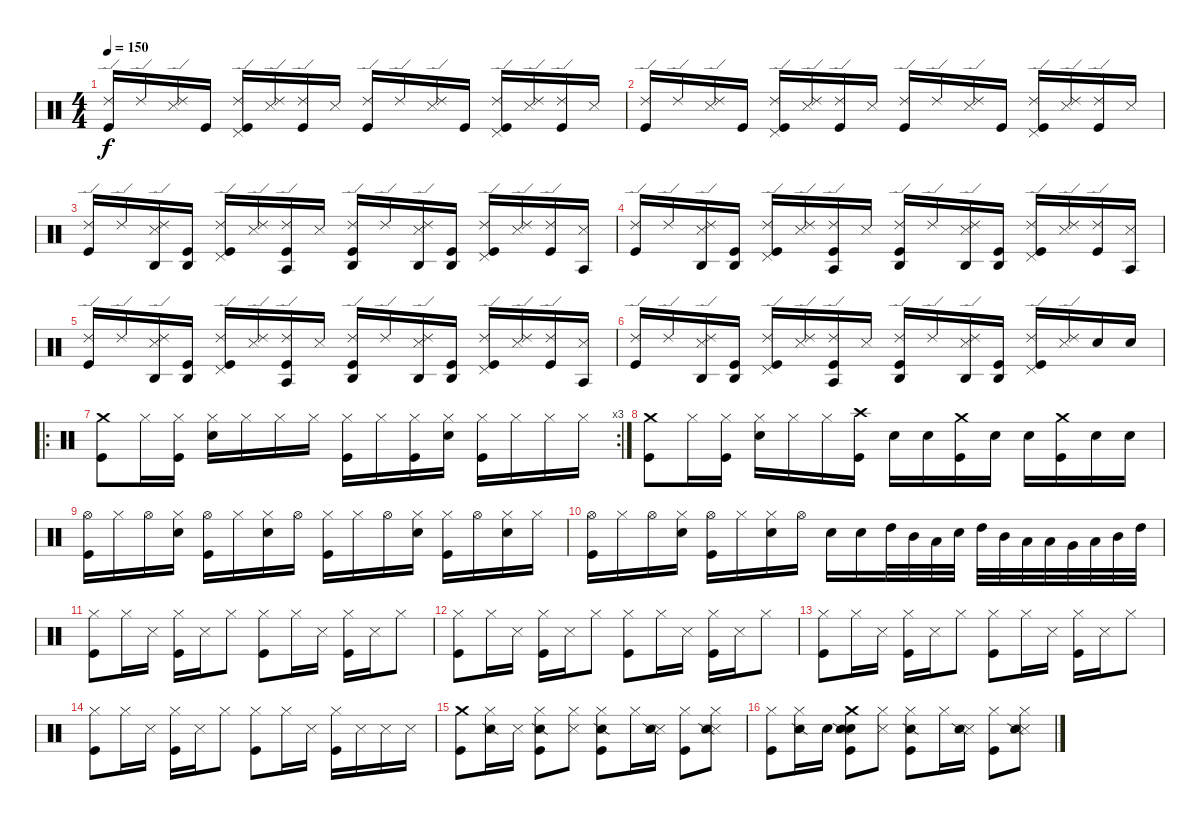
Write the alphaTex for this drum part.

\track "" {instrument percussion}
\staff {score}
\articulation defaults
\ts (4 4)
\tempo 150
\clef neutral
\ks c
("Ride (edge) 2" "Kick (hit)").16{dy f} "Ride (edge) 2".16 ("Ride (edge) 2" "Snare (side stick) 3").16 "Kick (hit)".16 ("Ride (edge) 2" "Pedal Hi-Hat (hit)" "Kick (hit)").16 ("Ride (edge) 2" "Snare (side stick) 3").16 ("Ride (edge) 2" "Kick (hit)").16 "Snare (side stick) 3".16 ("Ride (edge) 2" "Kick (hit)").16 "Ride (edge) 2".16 ("Ride (edge) 2" "Snare (side stick) 3").16 "Kick (hit)".16 ("Ride (edge) 2" "Pedal Hi-Hat (hit)" "Kick (hit)").16 ("Ride (edge) 2" "Snare (side stick) 3").16 ("Ride (edge) 2" "Kick (hit)").16 "Snare (side stick) 3".16 |
("Ride (edge) 2" "Kick (hit)").16 "Ride (edge) 2".16 ("Ride (edge) 2" "Snare (side stick) 3").16 "Kick (hit)".16 ("Ride (edge) 2" "Pedal Hi-Hat (hit)" "Kick (hit)").16 ("Ride (edge) 2" "Snare (side stick) 3").16 ("Ride (edge) 2" "Kick (hit)").16 "Snare (side stick) 3".16 ("Ride (edge) 2" "Kick (hit)").16 "Ride (edge) 2".16 ("Ride (edge) 2" "Snare (side stick) 3").16 "Kick (hit)".16 ("Ride (edge) 2" "Pedal Hi-Hat (hit)" "Kick (hit)").16 ("Ride (edge) 2" "Snare (side stick) 3").16 ("Ride (edge) 2" "Kick (hit)").16 "Snare (side stick) 3".16 |
("Ride (edge) 2" "Kick (hit)").16 "Ride (edge) 2".16 ("Ride (edge) 2" "Snare (side stick) 3" "Agogo high (hit)").16 ("Agogo high (hit)" "Kick (hit)").16 ("Ride (edge) 2" "Pedal Hi-Hat (hit)" "Kick (hit)").16 ("Ride (edge) 2" "Snare (side stick) 3").16 ("Ride (edge) 2" "Agogo tow (hit)" "Kick (hit)").16 "Snare (side stick) 3".16 ("Ride (edge) 2" "Agogo high (hit)" "Kick (hit)").16 "Ride (edge) 2".16 ("Ride (edge) 2" "Snare (side stick) 3" "Agogo high (hit)").16 ("Agogo high (hit)" "Kick (hit)").16 ("Ride (edge) 2" "Pedal Hi-Hat (hit)" "Kick (hit)").16 ("Ride (edge) 2" "Snare (side stick) 3").16 ("Ride (edge) 2" "Kick (hit)").16 ("Snare (side stick) 3" "Agogo tow (hit)").16 |
("Ride (edge) 2" "Kick (hit)").16 "Ride (edge) 2".16 ("Ride (edge) 2" "Snare (side stick) 3" "Agogo high (hit)").16 ("Agogo high (hit)" "Kick (hit)").16 ("Ride (edge) 2" "Pedal Hi-Hat (hit)" "Kick (hit)").16 ("Ride (edge) 2" "Snare (side stick) 3").16 ("Ride (edge) 2" "Agogo tow (hit)" "Kick (hit)").16 "Snare (side stick) 3".16 ("Ride (edge) 2" "Agogo high (hit)" "Kick (hit)").16 "Ride (edge) 2".16 ("Ride (edge) 2" "Snare (side stick) 3" "Agogo high (hit)").16 ("Agogo high (hit)" "Kick (hit)").16 ("Ride (edge) 2" "Pedal Hi-Hat (hit)" "Kick (hit)").16 ("Ride (edge) 2" "Snare (side stick) 3").16 ("Ride (edge) 2" "Kick (hit)").16 ("Snare (side stick) 3" "Agogo tow (hit)").16 |
("Ride (edge) 2" "Kick (hit)").16 "Ride (edge) 2".16 ("Ride (edge) 2" "Snare (side stick) 3" "Agogo high (hit)").16 ("Agogo high (hit)" "Kick (hit)").16 ("Ride (edge) 2" "Pedal Hi-Hat (hit)" "Kick (hit)").16 ("Ride (edge) 2" "Snare (side stick) 3").16 ("Ride (edge) 2" "Agogo tow (hit)" "Kick (hit)").16 "Snare (side stick) 3".16 ("Ride (edge) 2" "Agogo high (hit)" "Kick (hit)").16 "Ride (edge) 2".16 ("Ride (edge) 2" "Snare (side stick) 3" "Agogo high (hit)").16 ("Agogo high (hit)" "Kick (hit)").16 ("Ride (edge) 2" "Pedal Hi-Hat (hit)" "Kick (hit)").16 ("Ride (edge) 2" "Snare (side stick) 3").16 ("Ride (edge) 2" "Kick (hit)").16 ("Snare (side stick) 3" "Agogo tow (hit)").16 |
("Ride (edge) 2" "Kick (hit)").16 "Ride (edge) 2".16 ("Ride (edge) 2" "Snare (side stick) 3" "Agogo high (hit)").16 ("Agogo high (hit)" "Kick (hit)").16 ("Ride (edge) 2" "Pedal Hi-Hat (hit)" "Kick (hit)").16 ("Ride (edge) 2" "Snare (side stick) 3").16 ("Ride (edge) 2" "Agogo tow (hit)" "Kick (hit)").16 "Snare (side stick) 3".16 ("Ride (edge) 2" "Agogo high (hit)" "Kick (hit)").16 "Ride (edge) 2".16 ("Ride (edge) 2" "Snare (side stick) 3" "Agogo high (hit)").16 ("Agogo high (hit)" "Kick (hit)").16 ("Ride (edge) 2" "Pedal Hi-Hat (hit)" "Kick (hit)").16 ("Ride (edge) 2" "Snare (side stick) 3").16 "Electric Snare (hit)".16 "Electric Snare (hit)".16 |
\ro
\rc 3
("Crash medium (hit)" "Kick (hit)").8 "Hi-Hat (closed)".16 ("Hi-Hat (closed)" "Kick (hit)").16 ("Hi-Hat (closed)" "Electric Snare (hit)").16 "Hi-Hat (closed)".16 "Hi-Hat (closed)".16 "Hi-Hat (closed)".16 ("Hi-Hat (closed)" "Kick (hit)").16 "Hi-Hat (closed)".16 ("Hi-Hat (closed)" "Kick (hit)").16 ("Hi-Hat (closed)" "Electric Snare (hit)").16 ("Hi-Hat (closed)" "Kick (hit)").16 "Hi-Hat (closed)".16 "Hi-Hat (closed)".16 "Hi-Hat (closed)".16 |
("Crash medium (hit)" "Kick (hit)").8 "Hi-Hat (closed)".16 ("Hi-Hat (closed)" "Kick (hit)").16 ("Hi-Hat (closed)" "Electric Snare (hit)").16 "Hi-Hat (closed)".16 "Hi-Hat (closed)".16 ("Crash high (hit)" "Kick (hit)").16 "Electric Snare (hit)".16 "Electric Snare (hit)".16 ("Crash medium (hit)" "Kick (hit)").16 "Electric Snare (hit)".16 "Electric Snare (hit)".16 ("Crash medium (hit)" "Kick (hit)").16 "Electric Snare (hit)".16 "Electric Snare (hit)".16 |
("Hi-Hat (open)" "Kick (hit)").16 "Hi-Hat (closed)".16 "Hi-Hat (open)".16 ("Hi-Hat (closed)" "Electric Snare (hit)").16 ("Hi-Hat (open)" "Kick (hit)").16 "Hi-Hat (closed)".16 ("Hi-Hat (closed)" "Electric Snare (hit)").16 "Hi-Hat (open)".16 ("Hi-Hat (closed)" "Kick (hit)").16 "Hi-Hat (closed)".16 "Hi-Hat (open)".16 ("Hi-Hat (closed)" "Electric Snare (hit)").16 ("Hi-Hat (closed)" "Kick (hit)").16 "Hi-Hat (open)".16 ("Hi-Hat (closed)" "Electric Snare (hit)").16 "Hi-Hat (closed)".16 |
("Hi-Hat (open)" "Kick (hit)").16 "Hi-Hat (closed)".16 "Hi-Hat (open)".16 ("Hi-Hat (closed)" "Electric Snare (hit)").16 ("Hi-Hat (open)" "Kick (hit)").16 "Hi-Hat (closed)".16 ("Hi-Hat (closed)" "Electric Snare (hit)").16 "Hi-Hat (open)".16 "Electric Snare (hit)".16 "Electric Snare (hit)".16 "High Tom (hit)".32 "Mid Tom (hit)".32 "Low Tom (hit)".32 "Electric Snare (hit)".32 "High Tom (hit)".32 "Mid Tom (hit)".32 "Low Tom (hit)".32 "Low Tom (hit)".32 "Very Low Tom (hit)".32 "Low Tom (hit)".32 "Mid Tom (hit)".32 "High Tom (hit)".32 |
("Hi-Hat (closed)" "Kick (hit)").8 "Hi-Hat (closed)".16 "Snare (side stick) 3".16 ("Hi-Hat (closed)" "Kick (hit)").16 "Snare (side stick) 3".16 "Hi-Hat (closed)".8 ("Hi-Hat (closed)" "Kick (hit)").8 "Hi-Hat (closed)".16 "Snare (side stick) 3".16 ("Hi-Hat (closed)" "Kick (hit)").16 "Snare (side stick) 3".16 "Hi-Hat (closed)".8 |
("Hi-Hat (closed)" "Kick (hit)").8 "Hi-Hat (closed)".16 "Snare (side stick) 3".16 ("Hi-Hat (closed)" "Kick (hit)").16 "Snare (side stick) 3".16 "Hi-Hat (closed)".8 ("Hi-Hat (closed)" "Kick (hit)").8 "Hi-Hat (closed)".16 "Snare (side stick) 3".16 ("Hi-Hat (closed)" "Kick (hit)").16 "Snare (side stick) 3".16 "Hi-Hat (closed)".8 |
("Hi-Hat (closed)" "Kick (hit)").8 "Hi-Hat (closed)".16 "Snare (side stick) 3".16 ("Hi-Hat (closed)" "Kick (hit)").16 "Snare (side stick) 3".16 "Hi-Hat (closed)".8 ("Hi-Hat (closed)" "Kick (hit)").8 "Hi-Hat (closed)".16 "Snare (side stick) 3".16 ("Hi-Hat (closed)" "Kick (hit)").16 "Snare (side stick) 3".16 "Hi-Hat (closed)".8 |
("Hi-Hat (closed)" "Kick (hit)").8 "Hi-Hat (closed)".16 "Snare (side stick) 3".16 ("Hi-Hat (closed)" "Kick (hit)").16 "Snare (side stick) 3".16 "Hi-Hat (closed)".8 ("Hi-Hat (closed)" "Kick (hit)").8 "Hi-Hat (closed)".16 "Snare (side stick) 3".16 ("Hi-Hat (closed)" "Kick (hit)").16 "Snare (side stick) 3".16 "Snare (side stick) 3".16 "Snare (side stick) 3".16 |
("Crash medium (hit)" "Kick (hit)").8 ("Hi-Hat (closed)" "Snare (side stick) 2").16 "Snare (side stick) 3".16 ("Hi-Hat (closed)" "Snare (side stick) 2" "Kick (hit)").8 ("Hi-Hat (closed)" "Snare (side stick) 3").8 ("Hi-Hat (closed)" "Snare (side stick) 2" "Kick (hit)").8 "Hi-Hat (closed)".16 ("Snare (side stick) 3" "Snare (side stick) 2").16 ("Hi-Hat (closed)" "Kick (hit)").8 ("Hi-Hat (closed)" "Snare (side stick) 3" "Snare (side stick) 2").8 |
("Hi-Hat (closed)" "Kick (hit)").8 ("Hi-Hat (closed)" "Snare (side stick) 2").16 "Electric Snare (hit)".16 ("Crash medium (hit)" "Electric Snare (hit)" "Snare (side stick) 2" "Kick (hit)").8 ("Hi-Hat (closed)" "Snare (side stick) 3").8 ("Hi-Hat (closed)" "Snare (side stick) 2" "Kick (hit)").8 "Hi-Hat (closed)".16 ("Snare (side stick) 3" "Snare (side stick) 2").16 ("Hi-Hat (closed)" "Kick (hit)").8 ("Hi-Hat (closed)" "Snare (side stick) 3" "Snare (side stick) 2").8
